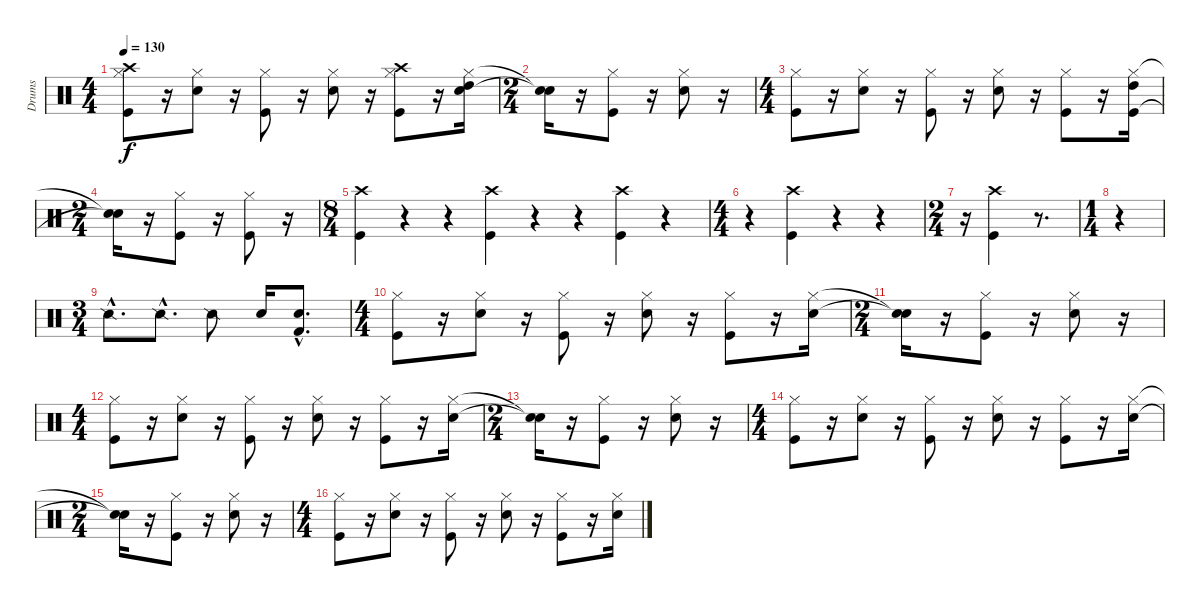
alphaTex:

\track ("Drums" "Drums") {instrument percussion}
\staff {score}
\articulation defaults
\ts (4 4)
\tempo 130
\clef neutral
\ks c
("Hi-Hat (closed)" "Kick (hit)" "Crash high (hit)").8{dy f} r.16 ("Hi-Hat (closed)" "Snare (hit) 2").8 r.16 ("Hi-Hat (closed)" "Kick (hit)").8 r.16 ("Hi-Hat (closed)" "Snare (hit) 2").8 r.16 ("Hi-Hat (closed)" "Kick (hit)" "Crash high (hit)").8 r.16 ("Hi-Hat (closed)" "Snare (hit) 2" "High Tom (hit)").16 |
\ts (2 4)
("Snare (hit)"{t} "Snare (hit)"{t}).16 r.16 ("Hi-Hat (closed)" "Kick (hit)").8 r.16 ("Hi-Hat (closed)" "Snare (hit) 2").8 r.16 |
\ts (4 4)
("Hi-Hat (closed)" "Kick (hit)").8 r.16 ("Hi-Hat (closed)" "Snare (hit) 2").8 r.16 ("Hi-Hat (closed)" "Kick (hit)").8 r.16 ("Hi-Hat (closed)" "Snare (hit) 2").8 r.16 ("Hi-Hat (closed)" "Kick (hit)").8 r.16 ("Hi-Hat (closed)" "Kick (hit)" "High Tom (hit)").16 |
\ts (2 4)
("Snare (hit)"{t} "Snare (hit)"{t}).16 r.16 ("Hi-Hat (closed)" "Kick (hit)").8 r.16 ("Hi-Hat (closed)" "Kick (hit)").8 r.16 |
\ts (8 4)
("Kick (hit)" "Crash high (hit)").4 r.4 r.4 ("Kick (hit)" "Crash high (hit)").4 r.4 r.4 ("Kick (hit)" "Crash high (hit)").4 r.4 |
\ts (4 4)
r.4 ("Kick (hit)" "Crash high (hit)").4 r.4 r.4 |
\ts (2 4)
r.16 ("Kick (hit)" "Crash high (hit)").4 r.8{d} |
\ts (1 4)
r.4 |
\ts (3 4)
"Snare (side stick) 2"{hac}.8{d} "Snare (side stick) 2"{hac}.8{d} "Snare (side stick) 2".8 "Snare (hit) 2".16 ("Snare (hit) 2"{hac} "Kick (hit) 2"{hac}).8{d} |
\ts (4 4)
("Hi-Hat (closed)" "Kick (hit)").8 r.16 ("Hi-Hat (closed)" "Snare (hit) 2").8 r.16 ("Hi-Hat (closed)" "Kick (hit)").8 r.16 ("Hi-Hat (closed)" "Snare (hit) 2").8 r.16 ("Hi-Hat (closed)" "Kick (hit)").8 r.16 ("Hi-Hat (closed)" "Snare (hit) 2").16 |
\ts (2 4)
("Snare (hit)"{t} "Snare (hit)"{t}).16 r.16 ("Hi-Hat (closed)" "Kick (hit)").8 r.16 ("Hi-Hat (closed)" "Snare (hit) 2").8 r.16 |
\ts (4 4)
("Hi-Hat (closed)" "Kick (hit)").8 r.16 ("Hi-Hat (closed)" "Snare (hit) 2").8 r.16 ("Hi-Hat (closed)" "Kick (hit)").8 r.16 ("Hi-Hat (closed)" "Snare (hit) 2").8 r.16 ("Hi-Hat (closed)" "Kick (hit)").8 r.16 ("Hi-Hat (closed)" "Snare (hit) 2").16 |
\ts (2 4)
("Snare (hit)"{t} "Snare (hit)"{t}).16 r.16 ("Hi-Hat (closed)" "Kick (hit)").8 r.16 ("Hi-Hat (closed)" "Snare (hit) 2").8 r.16 |
\ts (4 4)
("Hi-Hat (closed)" "Kick (hit)").8 r.16 ("Hi-Hat (closed)" "Snare (hit) 2").8 r.16 ("Hi-Hat (closed)" "Kick (hit)").8 r.16 ("Hi-Hat (closed)" "Snare (hit) 2").8 r.16 ("Hi-Hat (closed)" "Kick (hit)").8 r.16 ("Hi-Hat (closed)" "Snare (hit) 2").16 |
\ts (2 4)
("Snare (hit)"{t} "Snare (hit)"{t}).16 r.16 ("Hi-Hat (closed)" "Kick (hit)").8 r.16 ("Hi-Hat (closed)" "Snare (hit) 2").8 r.16 |
\ts (4 4)
("Hi-Hat (closed)" "Kick (hit)").8 r.16 ("Hi-Hat (closed)" "Snare (hit) 2").8 r.16 ("Hi-Hat (closed)" "Kick (hit)").8 r.16 ("Hi-Hat (closed)" "Snare (hit) 2").8 r.16 ("Hi-Hat (closed)" "Kick (hit)").8 r.16 ("Hi-Hat (closed)" "Snare (hit) 2").16
